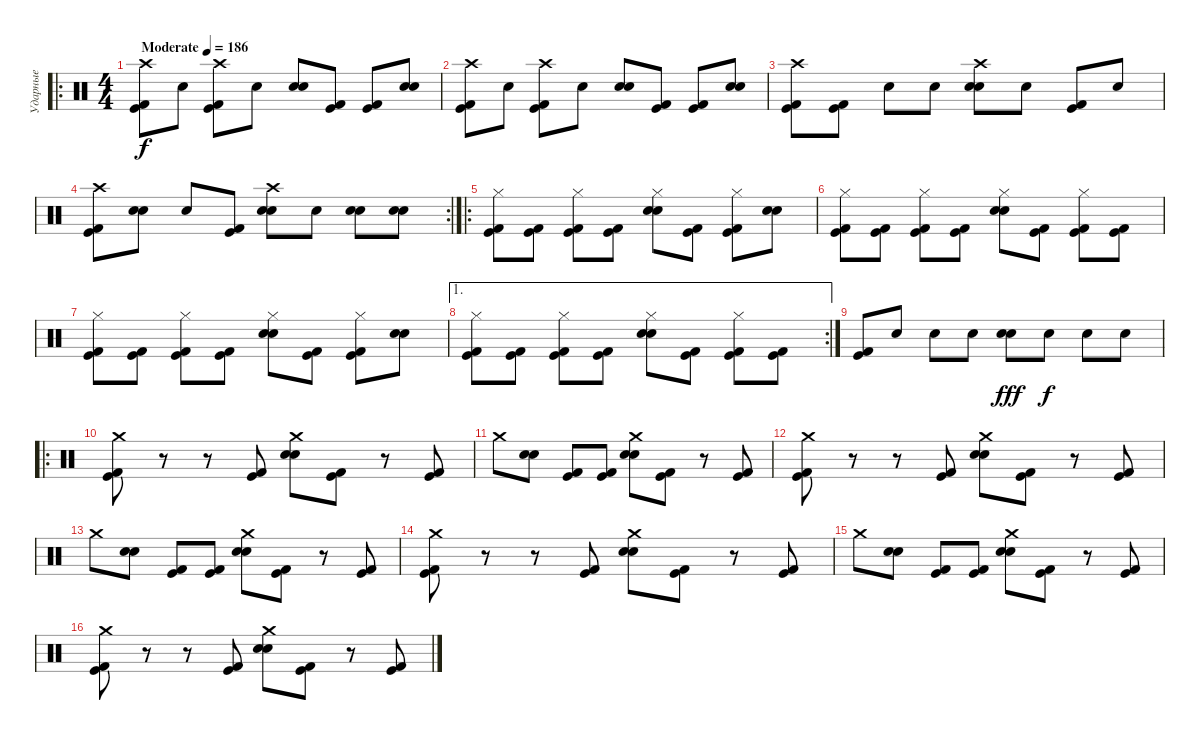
\track ("Ударные" "Ударные") {instrument percussion}
\staff {score}
\articulation defaults
\ro
\ts (4 4)
\tempo (186 "Moderate")
\clef neutral
\ks c
("Kick (hit) 2" "Kick (hit)" "Crash high (hit)").8{dy f} "Snare (hit)".8 ("Kick (hit) 2" "Kick (hit)" "Crash high (hit)").8 "Snare (hit)".8 ("Electric Snare (hit)" "Snare (hit) 2").8 ("Kick (hit) 2" "Kick (hit)").8 ("Kick (hit) 2" "Kick (hit)").8 ("Electric Snare (hit)" "Snare (hit) 2").8 |
("Kick (hit) 2" "Kick (hit)" "Crash high (hit)").8 "Snare (hit)".8 ("Kick (hit) 2" "Kick (hit)" "Crash high (hit)").8 "Snare (hit)".8 ("Electric Snare (hit)" "Snare (hit) 2").8 ("Kick (hit) 2" "Kick (hit)").8 ("Kick (hit) 2" "Kick (hit)").8 ("Electric Snare (hit)" "Snare (hit) 2").8 |
("Kick (hit) 2" "Kick (hit)" "Crash high (hit)").8 ("Kick (hit) 2" "Kick (hit)").8 "Snare (hit)".8 "Snare (hit)".8 ("Electric Snare (hit)" "Snare (hit) 2" "Crash high (hit)").8 "Snare (hit)".8 ("Kick (hit) 2" "Kick (hit)").8 "Snare (hit)".8 |
\rc 2
("Kick (hit) 2" "Kick (hit)" "Crash high (hit)").8 ("Electric Snare (hit)" "Snare (hit) 2").8 "Snare (hit)".8 ("Kick (hit) 2" "Kick (hit)").8 ("Electric Snare (hit)" "Snare (hit) 2" "Crash high (hit)").8 "Snare (hit)".8 ("Electric Snare (hit)" "Snare (hit) 2").8 ("Electric Snare (hit)" "Snare (hit) 2").8 |
\ro
("Kick (hit) 2" "Kick (hit)" "Hi-Hat (closed)").8 ("Kick (hit) 2" "Kick (hit)").8 ("Kick (hit) 2" "Kick (hit)" "Hi-Hat (closed)").8 ("Kick (hit) 2" "Kick (hit)").8 ("Electric Snare (hit)" "Snare (hit) 2" "Hi-Hat (closed)").8 ("Kick (hit) 2" "Kick (hit)").8 ("Kick (hit) 2" "Kick (hit)" "Hi-Hat (closed)").8 ("Electric Snare (hit)" "Snare (hit) 2").8 |
("Kick (hit) 2" "Kick (hit)" "Hi-Hat (closed)").8 ("Kick (hit) 2" "Kick (hit)").8 ("Kick (hit) 2" "Kick (hit)" "Hi-Hat (closed)").8 ("Kick (hit) 2" "Kick (hit)").8 ("Electric Snare (hit)" "Snare (hit) 2" "Hi-Hat (closed)").8 ("Kick (hit) 2" "Kick (hit)").8 ("Kick (hit) 2" "Kick (hit)" "Hi-Hat (closed)").8 ("Kick (hit) 2" "Kick (hit)").8 |
("Kick (hit) 2" "Kick (hit)" "Hi-Hat (closed)").8 ("Kick (hit) 2" "Kick (hit)").8 ("Kick (hit) 2" "Kick (hit)" "Hi-Hat (closed)").8 ("Kick (hit) 2" "Kick (hit)").8 ("Electric Snare (hit)" "Snare (hit) 2" "Hi-Hat (closed)").8 ("Kick (hit) 2" "Kick (hit)").8 ("Kick (hit) 2" "Kick (hit)" "Hi-Hat (closed)").8 ("Electric Snare (hit)" "Snare (hit) 2").8 |
\ae 1
\rc 2
("Kick (hit) 2" "Kick (hit)" "Hi-Hat (closed)").8 ("Kick (hit) 2" "Kick (hit)").8 ("Kick (hit) 2" "Kick (hit)" "Hi-Hat (closed)").8 ("Kick (hit) 2" "Kick (hit)").8 ("Electric Snare (hit)" "Snare (hit) 2" "Hi-Hat (closed)").8 ("Kick (hit) 2" "Kick (hit)").8 ("Kick (hit) 2" "Kick (hit)" "Hi-Hat (closed)").8 ("Kick (hit) 2" "Kick (hit)").8 |
("Kick (hit) 2" "Kick (hit)").8 "Snare (hit)".8 "Snare (hit)".8 "Snare (hit)".8 ("Electric Snare (hit)" "Snare (hit) 2").8{dy fff} "Snare (hit)".8{dy f} "Snare (hit)".8 "Snare (hit)".8 |
\ro
("Kick (hit) 2" "Kick (hit)" "Crash medium (hit)").8 r.8 r.8 ("Kick (hit) 2" "Kick (hit)").8 ("Electric Snare (hit)" "Snare (hit) 2" "Crash medium (hit)").8 ("Kick (hit) 2" "Kick (hit)").8 r.8 ("Kick (hit) 2" "Kick (hit)").8 |
"Crash medium (hit)".8 ("Electric Snare (hit)" "Snare (hit) 2").8 ("Kick (hit) 2" "Kick (hit)").8 ("Kick (hit) 2" "Kick (hit)").8 ("Electric Snare (hit)" "Snare (hit) 2" "Crash medium (hit)").8 ("Kick (hit) 2" "Kick (hit)").8 r.8 ("Kick (hit) 2" "Kick (hit)").8 |
("Kick (hit) 2" "Kick (hit)" "Crash medium (hit)").8 r.8 r.8 ("Kick (hit) 2" "Kick (hit)").8 ("Electric Snare (hit)" "Snare (hit) 2" "Crash medium (hit)").8 ("Kick (hit) 2" "Kick (hit)").8 r.8 ("Kick (hit) 2" "Kick (hit)").8 |
"Crash medium (hit)".8 ("Electric Snare (hit)" "Snare (hit) 2").8 ("Kick (hit) 2" "Kick (hit)").8 ("Kick (hit) 2" "Kick (hit)").8 ("Electric Snare (hit)" "Snare (hit) 2" "Crash medium (hit)").8 ("Kick (hit) 2" "Kick (hit)").8 r.8 ("Kick (hit) 2" "Kick (hit)").8 |
("Kick (hit) 2" "Kick (hit)" "Crash medium (hit)").8 r.8 r.8 ("Kick (hit) 2" "Kick (hit)").8 ("Electric Snare (hit)" "Snare (hit) 2" "Crash medium (hit)").8 ("Kick (hit) 2" "Kick (hit)").8 r.8 ("Kick (hit) 2" "Kick (hit)").8 |
"Crash medium (hit)".8 ("Electric Snare (hit)" "Snare (hit) 2").8 ("Kick (hit) 2" "Kick (hit)").8 ("Kick (hit) 2" "Kick (hit)").8 ("Electric Snare (hit)" "Snare (hit) 2" "Crash medium (hit)").8 ("Kick (hit) 2" "Kick (hit)").8 r.8 ("Kick (hit) 2" "Kick (hit)").8 |
("Kick (hit) 2" "Kick (hit)" "Crash medium (hit)").8 r.8 r.8 ("Kick (hit) 2" "Kick (hit)").8 ("Electric Snare (hit)" "Snare (hit) 2" "Crash medium (hit)").8 ("Kick (hit) 2" "Kick (hit)").8 r.8 ("Kick (hit) 2" "Kick (hit)").8
